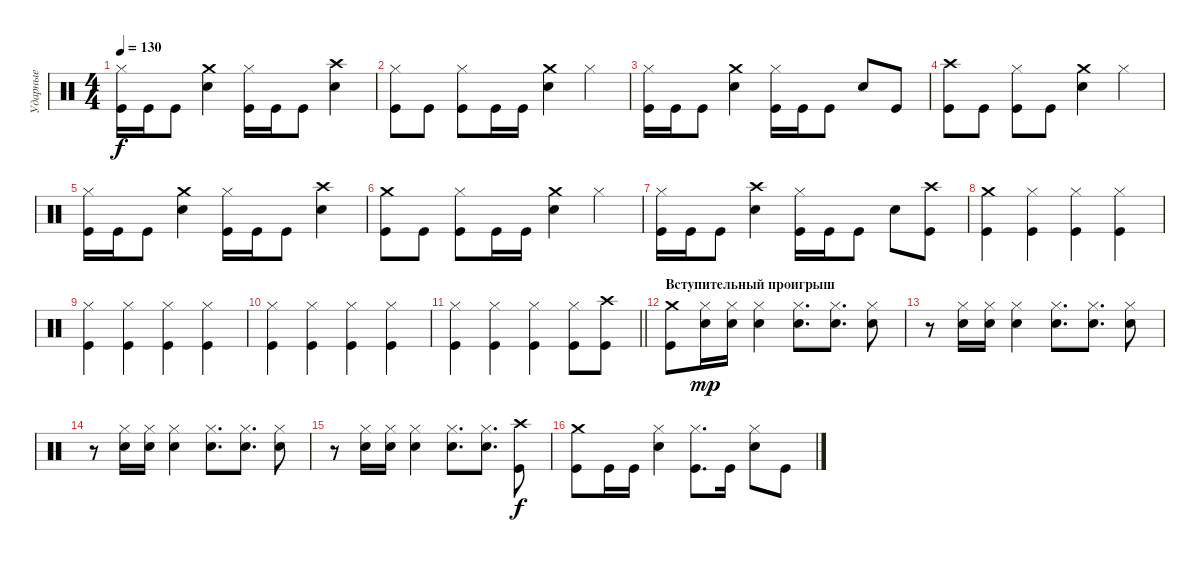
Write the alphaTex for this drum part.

\track ("Ударные" "Ударные") {instrument percussion}
\staff {score}
\articulation defaults
\ts (4 4)
\tempo 130
\clef neutral
\ks c
("Hi-Hat (closed)" "Kick (hit)").16{dy f} "Kick (hit)".16 "Kick (hit)".8 ("Crash medium (hit)" "Snare (hit) 2").4 ("Hi-Hat (closed)" "Kick (hit)").16 "Kick (hit)".16 "Kick (hit)".8 ("Crash high (hit)" "Snare (hit) 2").4 |
("Hi-Hat (closed)" "Kick (hit)").8 "Kick (hit)".8 ("Hi-Hat (closed)" "Kick (hit)").8 "Kick (hit)".16 "Kick (hit)".16 ("Crash medium (hit)" "Snare (hit) 2").4 "Hi-Hat (closed)".4 |
("Hi-Hat (closed)" "Kick (hit)").16 "Kick (hit)".16 "Kick (hit)".8 ("Crash medium (hit)" "Snare (hit) 2").4 ("Hi-Hat (closed)" "Kick (hit)").16 "Kick (hit)".16 "Kick (hit)".8 "Snare (hit) 2".8 "Kick (hit)".8 |
("Crash high (hit)" "Kick (hit)").8 "Kick (hit)".8 ("Hi-Hat (closed)" "Kick (hit)").8 "Kick (hit)".8 ("Crash medium (hit)" "Snare (hit) 2").4 "Hi-Hat (closed)".4 |
("Hi-Hat (closed)" "Kick (hit)").16 "Kick (hit)".16 "Kick (hit)".8 ("Crash medium (hit)" "Snare (hit) 2").4 ("Hi-Hat (closed)" "Kick (hit)").16 "Kick (hit)".16 "Kick (hit)".8 ("Crash high (hit)" "Snare (hit) 2").4 |
("Crash medium (hit)" "Kick (hit)").8 "Kick (hit)".8 ("Hi-Hat (closed)" "Kick (hit)").8 "Kick (hit)".16 "Kick (hit)".16 ("Crash medium (hit)" "Snare (hit) 2").4 "Hi-Hat (closed)".4 |
("Hi-Hat (closed)" "Kick (hit)").16 "Kick (hit)".16 "Kick (hit)".8 ("Crash high (hit)" "Snare (hit) 2").4 ("Hi-Hat (closed)" "Kick (hit)").16 "Kick (hit)".16 "Kick (hit)".8 "Snare (hit) 2".8 ("Crash high (hit)" "Kick (hit)").8 |
("Crash medium (hit)" "Kick (hit)").4 ("Hi-Hat (closed)" "Kick (hit)").4 ("Hi-Hat (closed)" "Kick (hit)").4 ("Hi-Hat (closed)" "Kick (hit)").4 |
("Hi-Hat (closed)" "Kick (hit)").4 ("Hi-Hat (closed)" "Kick (hit)").4 ("Hi-Hat (closed)" "Kick (hit)").4 ("Hi-Hat (closed)" "Kick (hit)").4 |
("Hi-Hat (closed)" "Kick (hit)").4 ("Hi-Hat (closed)" "Kick (hit)").4 ("Hi-Hat (closed)" "Kick (hit)").4 ("Hi-Hat (closed)" "Kick (hit)").4 |
\barLineRight lightlight
("Hi-Hat (closed)" "Kick (hit)").4 ("Hi-Hat (closed)" "Kick (hit)").4 ("Hi-Hat (closed)" "Kick (hit)").4 ("Hi-Hat (closed)" "Kick (hit)").8 ("Crash high (hit)" "Kick (hit)").8 |
\section ("" "Вступительный проигрыш")
("Crash medium (hit)" "Kick (hit)").8 ("Hi-Hat (closed)" "Snare (hit) 2").16{dy mp} ("Hi-Hat (closed)" "Snare (hit) 2").16 ("Hi-Hat (closed)" "Snare (hit) 2").4 ("Hi-Hat (closed)" "Snare (hit) 2").8{d} ("Hi-Hat (closed)" "Snare (hit) 2").8{d} ("Hi-Hat (closed)" "Snare (hit) 2").8 |
r.8 ("Hi-Hat (closed)" "Snare (hit) 2").16 ("Hi-Hat (closed)" "Snare (hit) 2").16 ("Hi-Hat (closed)" "Snare (hit) 2").4 ("Hi-Hat (closed)" "Snare (hit) 2").8{d} ("Hi-Hat (closed)" "Snare (hit) 2").8{d} ("Hi-Hat (closed)" "Snare (hit) 2").8 |
r.8 ("Hi-Hat (closed)" "Snare (hit) 2").16 ("Hi-Hat (closed)" "Snare (hit) 2").16 ("Hi-Hat (closed)" "Snare (hit) 2").4 ("Hi-Hat (closed)" "Snare (hit) 2").8{d} ("Hi-Hat (closed)" "Snare (hit) 2").8{d} ("Hi-Hat (closed)" "Snare (hit) 2").8 |
r.8 ("Hi-Hat (closed)" "Snare (hit) 2").16 ("Hi-Hat (closed)" "Snare (hit) 2").16 ("Hi-Hat (closed)" "Snare (hit) 2").4 ("Hi-Hat (closed)" "Snare (hit) 2").8{d} ("Hi-Hat (closed)" "Snare (hit) 2").8{d} ("Crash high (hit)" "Kick (hit)").8{dy f} |
("Crash medium (hit)" "Kick (hit)").8 "Kick (hit)".16 "Kick (hit)".16 ("Hi-Hat (closed)" "Snare (hit) 2").4 ("Hi-Hat (closed)" "Kick (hit)").8{d} "Kick (hit)".16 ("Hi-Hat (closed)" "Snare (hit) 2").8 "Kick (hit)".8
